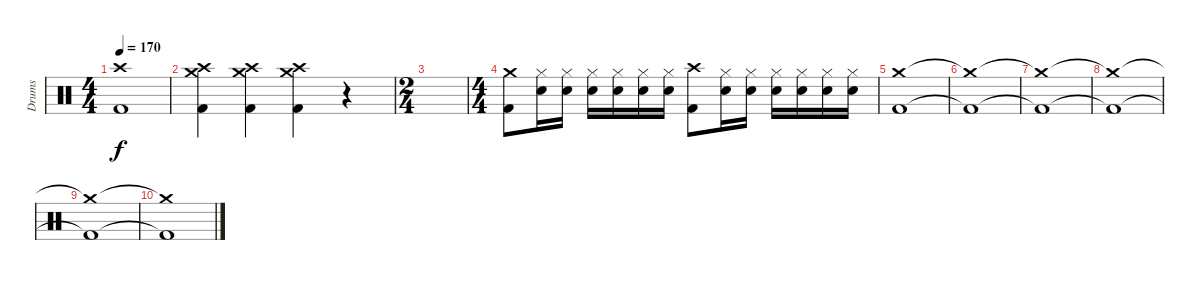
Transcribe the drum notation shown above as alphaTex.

\track ("Drums" "Drums") {instrument percussion}
\staff {score}
\articulation defaults
\ts (4 4)
\tempo 170
\clef neutral
\ks c
("Crash high (hit)" "Kick (hit) 2").1{dy f} |
("Crash high (hit)" "Crash medium (hit)" "Kick (hit) 2").4 ("Crash high (hit)" "Crash medium (hit)" "Kick (hit) 2").4 ("Crash high (hit)" "Crash medium (hit)" "Kick (hit) 2").4 r.4 |
\ts (2 4)
|
\ts (4 4)
("Crash medium (hit)" "Kick (hit) 2").8 ("Hi-Hat (closed)" "Electric Snare (hit)").16 ("Hi-Hat (closed)" "Electric Snare (hit)").16 ("Hi-Hat (closed)" "Electric Snare (hit)").16 ("Hi-Hat (closed)" "Electric Snare (hit)").16 ("Hi-Hat (closed)" "Electric Snare (hit)").16 ("Hi-Hat (closed)" "Electric Snare (hit)").16 ("Crash high (hit)" "Kick (hit) 2").8 ("Hi-Hat (closed)" "Electric Snare (hit)").16 ("Hi-Hat (closed)" "Electric Snare (hit)").16 ("Hi-Hat (closed)" "Electric Snare (hit)").16 ("Hi-Hat (closed)" "Electric Snare (hit)").16 ("Hi-Hat (closed)" "Electric Snare (hit)").16 ("Hi-Hat (closed)" "Electric Snare (hit)").16 |
("Crash medium (hit)" "Kick (hit) 2").1 |
("Crash medium (hit)"{t} "Kick (hit) 2"{t}).1 |
("Crash medium (hit)"{t} "Kick (hit) 2"{t}).1 |
("Crash medium (hit)"{t} "Kick (hit) 2"{t}).1 |
("Crash medium (hit)"{t} "Kick (hit) 2"{t}).1 |
("Crash medium (hit)"{t} "Kick (hit) 2"{t}).1
